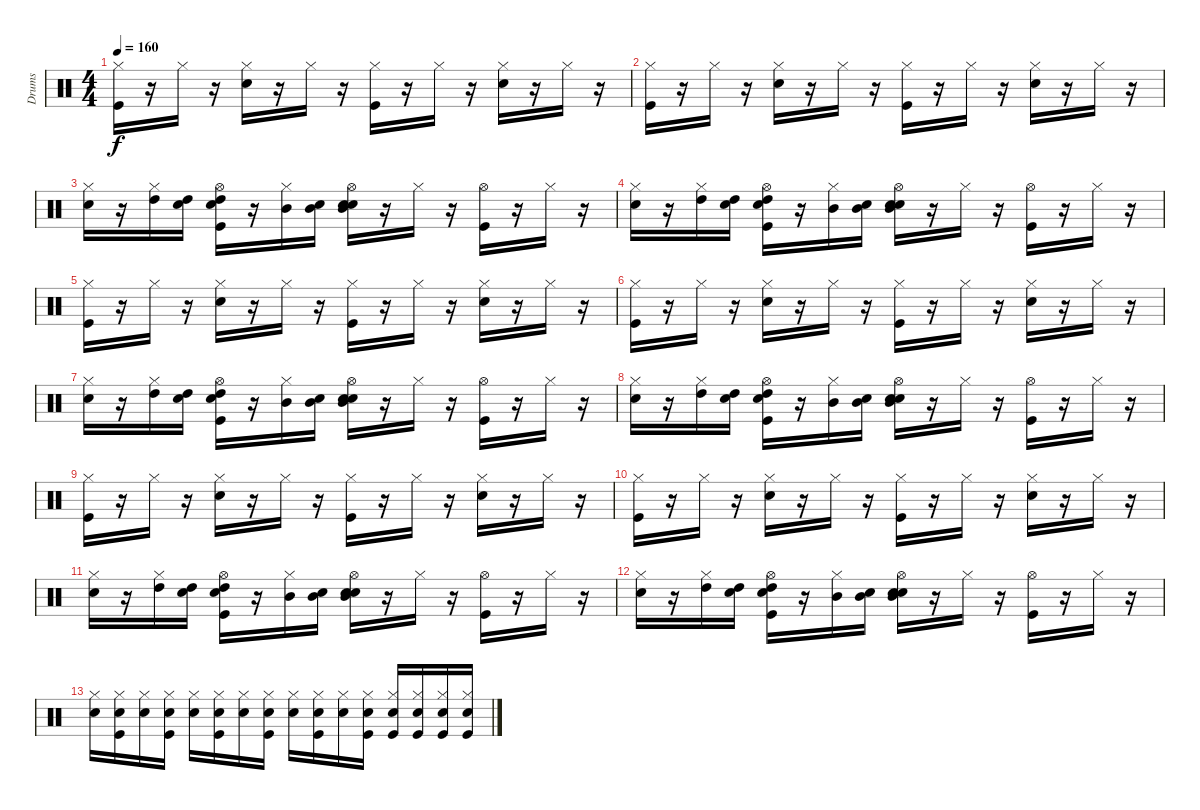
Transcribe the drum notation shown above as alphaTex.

\track ("Drums               " "Drums     ") {instrument percussion}
\staff {score}
\articulation defaults
\ts (4 4)
\tempo 160
\clef neutral
\ks c
("Kick (hit)" "Hi-Hat (closed)").16{dy f} r.16 "Hi-Hat (closed)".16 r.16 ("Snare (hit) 2" "Hi-Hat (closed)").16 r.16 "Hi-Hat (closed)".16 r.16 ("Kick (hit)" "Hi-Hat (closed)").16 r.16 "Hi-Hat (closed)".16 r.16 ("Snare (hit) 2" "Hi-Hat (closed)").16 r.16 "Hi-Hat (closed)".16 r.16 |
("Kick (hit)" "Hi-Hat (closed)").16 r.16 "Hi-Hat (closed)".16 r.16 ("Snare (hit) 2" "Hi-Hat (closed)").16 r.16 "Hi-Hat (closed)".16 r.16 ("Kick (hit)" "Hi-Hat (closed)").16 r.16 "Hi-Hat (closed)".16 r.16 ("Snare (hit) 2" "Hi-Hat (closed)").16 r.16 "Hi-Hat (closed)".16 r.16 |
("Snare (hit) 2" "Hi-Hat (closed)").16 r.16 ("Hi-Hat (closed)" "High Tom (hit)").16 ("Snare (hit)" "High Tom (hit)").16 ("Snare (hit)" "Kick (hit)" "High Tom (hit)" "Hi-Hat (open)").16 r.16 ("Hi-Hat (closed)" "Mid Tom (hit)").16 ("Snare (hit)" "Mid Tom (hit)").16 ("Snare (hit)" "Snare (hit) 2" "Mid Tom (hit)" "Hi-Hat (open)").16 r.16 "Hi-Hat (closed)".16 r.16 ("Kick (hit)" "Hi-Hat (open)").16 r.16 "Hi-Hat (closed)".16 r.16 |
("Snare (hit) 2" "Hi-Hat (closed)").16 r.16 ("Hi-Hat (closed)" "High Tom (hit)").16 ("Snare (hit)" "High Tom (hit)").16 ("Snare (hit)" "Kick (hit)" "High Tom (hit)" "Hi-Hat (open)").16 r.16 ("Hi-Hat (closed)" "Mid Tom (hit)").16 ("Snare (hit)" "Mid Tom (hit)").16 ("Snare (hit)" "Snare (hit) 2" "Mid Tom (hit)" "Hi-Hat (open)").16 r.16 "Hi-Hat (closed)".16 r.16 ("Kick (hit)" "Hi-Hat (open)").16 r.16 "Hi-Hat (closed)".16 r.16 |
("Kick (hit)" "Hi-Hat (closed)").16 r.16 "Hi-Hat (closed)".16 r.16 ("Snare (hit) 2" "Hi-Hat (closed)").16 r.16 "Hi-Hat (closed)".16 r.16 ("Kick (hit)" "Hi-Hat (closed)").16 r.16 "Hi-Hat (closed)".16 r.16 ("Snare (hit) 2" "Hi-Hat (closed)").16 r.16 "Hi-Hat (closed)".16 r.16 |
("Kick (hit)" "Hi-Hat (closed)").16 r.16 "Hi-Hat (closed)".16 r.16 ("Snare (hit) 2" "Hi-Hat (closed)").16 r.16 "Hi-Hat (closed)".16 r.16 ("Kick (hit)" "Hi-Hat (closed)").16 r.16 "Hi-Hat (closed)".16 r.16 ("Snare (hit) 2" "Hi-Hat (closed)").16 r.16 "Hi-Hat (closed)".16 r.16 |
("Snare (hit) 2" "Hi-Hat (closed)").16 r.16 ("Hi-Hat (closed)" "High Tom (hit)").16 ("Snare (hit)" "High Tom (hit)").16 ("Snare (hit)" "Kick (hit)" "High Tom (hit)" "Hi-Hat (open)").16 r.16 ("Hi-Hat (closed)" "Mid Tom (hit)").16 ("Snare (hit)" "Mid Tom (hit)").16 ("Snare (hit)" "Snare (hit) 2" "Mid Tom (hit)" "Hi-Hat (open)").16 r.16 "Hi-Hat (closed)".16 r.16 ("Kick (hit)" "Hi-Hat (open)").16 r.16 "Hi-Hat (closed)".16 r.16 |
("Snare (hit) 2" "Hi-Hat (closed)").16 r.16 ("Hi-Hat (closed)" "High Tom (hit)").16 ("Snare (hit)" "High Tom (hit)").16 ("Snare (hit)" "Kick (hit)" "High Tom (hit)" "Hi-Hat (open)").16 r.16 ("Hi-Hat (closed)" "Mid Tom (hit)").16 ("Snare (hit)" "Mid Tom (hit)").16 ("Snare (hit)" "Snare (hit) 2" "Mid Tom (hit)" "Hi-Hat (open)").16 r.16 "Hi-Hat (closed)".16 r.16 ("Kick (hit)" "Hi-Hat (open)").16 r.16 "Hi-Hat (closed)".16 r.16 |
("Kick (hit)" "Hi-Hat (closed)").16 r.16 "Hi-Hat (closed)".16 r.16 ("Snare (hit) 2" "Hi-Hat (closed)").16 r.16 "Hi-Hat (closed)".16 r.16 ("Kick (hit)" "Hi-Hat (closed)").16 r.16 "Hi-Hat (closed)".16 r.16 ("Snare (hit) 2" "Hi-Hat (closed)").16 r.16 "Hi-Hat (closed)".16 r.16 |
("Kick (hit)" "Hi-Hat (closed)").16 r.16 "Hi-Hat (closed)".16 r.16 ("Snare (hit) 2" "Hi-Hat (closed)").16 r.16 "Hi-Hat (closed)".16 r.16 ("Kick (hit)" "Hi-Hat (closed)").16 r.16 "Hi-Hat (closed)".16 r.16 ("Snare (hit) 2" "Hi-Hat (closed)").16 r.16 "Hi-Hat (closed)".16 r.16 |
("Snare (hit) 2" "Hi-Hat (closed)").16 r.16 ("Hi-Hat (closed)" "High Tom (hit)").16 ("Snare (hit)" "High Tom (hit)").16 ("Snare (hit)" "Kick (hit)" "High Tom (hit)" "Hi-Hat (open)").16 r.16 ("Hi-Hat (closed)" "Mid Tom (hit)").16 ("Snare (hit)" "Mid Tom (hit)").16 ("Snare (hit)" "Snare (hit) 2" "Mid Tom (hit)" "Hi-Hat (open)").16 r.16 "Hi-Hat (closed)".16 r.16 ("Kick (hit)" "Hi-Hat (open)").16 r.16 "Hi-Hat (closed)".16 r.16 |
("Snare (hit) 2" "Hi-Hat (closed)").16 r.16 ("Hi-Hat (closed)" "High Tom (hit)").16 ("Snare (hit)" "High Tom (hit)").16 ("Snare (hit)" "Kick (hit)" "High Tom (hit)" "Hi-Hat (open)").16 r.16 ("Hi-Hat (closed)" "Mid Tom (hit)").16 ("Snare (hit)" "Mid Tom (hit)").16 ("Snare (hit)" "Snare (hit) 2" "Mid Tom (hit)" "Hi-Hat (open)").16 r.16 "Hi-Hat (closed)".16 r.16 ("Kick (hit)" "Hi-Hat (open)").16 r.16 "Hi-Hat (closed)".16 r.16 |
("Snare (hit) 2" "Hi-Hat (closed)").16 ("Snare (hit) 2" "Hi-Hat (closed)" "Kick (hit)").16 ("Snare (hit) 2" "Hi-Hat (closed)").16 ("Snare (hit) 2" "Hi-Hat (closed)" "Kick (hit)").16 ("Snare (hit) 2" "Hi-Hat (closed)").16 ("Snare (hit) 2" "Hi-Hat (closed)" "Kick (hit)").16 ("Snare (hit) 2" "Hi-Hat (closed)").16 ("Snare (hit) 2" "Hi-Hat (closed)" "Kick (hit)").16 ("Snare (hit) 2" "Hi-Hat (closed)").16 ("Snare (hit) 2" "Hi-Hat (closed)" "Kick (hit)").16 ("Snare (hit) 2" "Hi-Hat (closed)").16 ("Snare (hit) 2" "Hi-Hat (closed)" "Kick (hit)").16 ("Snare (hit) 2" "Hi-Hat (closed)" "Kick (hit)").16 ("Snare (hit) 2" "Hi-Hat (closed)" "Kick (hit)").16 ("Snare (hit) 2" "Hi-Hat (closed)" "Kick (hit)").16 ("Snare (hit) 2" "Hi-Hat (closed)" "Kick (hit)").16
